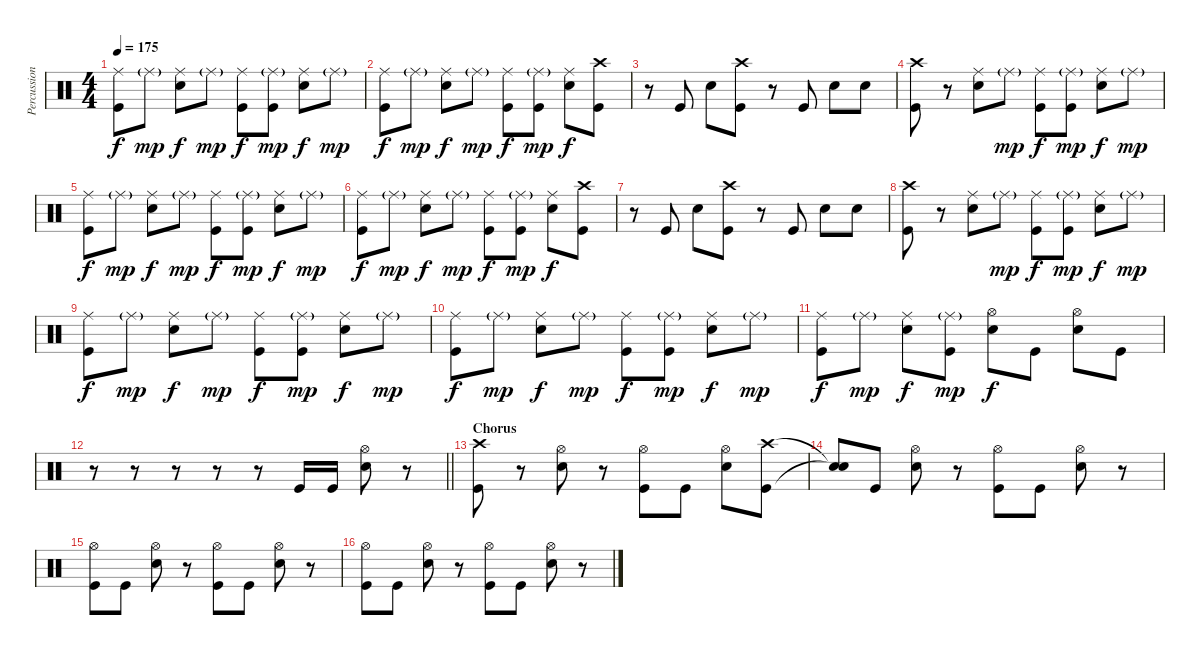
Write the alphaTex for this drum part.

\track ("Percussion" "Percussion") {instrument percussion}
\staff {score}
\articulation defaults
\ts (4 4)
\tempo 175
\clef neutral
\ks c
("Ride (middle)" "Kick (hit)").8{dy f} "Ride (middle)"{g}.8{dy mp} ("Ride (middle)" "Snare (hit) 2").8{dy f} "Ride (middle)"{g}.8{dy mp} ("Ride (middle)" "Kick (hit)").8{dy f} ("Ride (middle)"{g} "Kick (hit)").8{dy mp} ("Ride (middle)" "Snare (hit) 2").8{dy f} "Ride (middle)"{g}.8{dy mp} |
("Ride (middle)" "Kick (hit)").8{dy f} "Ride (middle)"{g}.8{dy mp} ("Ride (middle)" "Snare (hit) 2").8{dy f} "Ride (middle)"{g}.8{dy mp} ("Ride (middle)" "Kick (hit)").8{dy f} ("Ride (middle)"{g} "Kick (hit)").8{dy mp} ("Ride (middle)" "Snare (hit) 2").8{dy f} ("Crash high (hit)" "Kick (hit)").8 |
r.8 "Kick (hit)".8 "Snare (hit) 2".8 ("Crash high (hit)" "Kick (hit)").8 r.8 "Kick (hit)".8 "Snare (hit) 2".8 "Snare (hit) 2".8 |
("Crash high (hit)" "Kick (hit)").8 r.8 ("Ride (middle)" "Snare (hit) 2").8 "Ride (middle)"{g}.8{dy mp} ("Ride (middle)" "Kick (hit)").8{dy f} ("Ride (middle)"{g} "Kick (hit)").8{dy mp} ("Ride (middle)" "Snare (hit) 2").8{dy f} "Ride (middle)"{g}.8{dy mp} |
("Ride (middle)" "Kick (hit)").8{dy f} "Ride (middle)"{g}.8{dy mp} ("Ride (middle)" "Snare (hit) 2").8{dy f} "Ride (middle)"{g}.8{dy mp} ("Ride (middle)" "Kick (hit)").8{dy f} ("Ride (middle)"{g} "Kick (hit)").8{dy mp} ("Ride (middle)" "Snare (hit) 2").8{dy f} "Ride (middle)"{g}.8{dy mp} |
("Ride (middle)" "Kick (hit)").8{dy f} "Ride (middle)"{g}.8{dy mp} ("Ride (middle)" "Snare (hit) 2").8{dy f} "Ride (middle)"{g}.8{dy mp} ("Ride (middle)" "Kick (hit)").8{dy f} ("Ride (middle)"{g} "Kick (hit)").8{dy mp} ("Ride (middle)" "Snare (hit) 2").8{dy f} ("Crash high (hit)" "Kick (hit)").8 |
r.8 "Kick (hit)".8 "Snare (hit) 2".8 ("Crash high (hit)" "Kick (hit)").8 r.8 "Kick (hit)".8 "Snare (hit) 2".8 "Snare (hit) 2".8 |
("Crash high (hit)" "Kick (hit)").8 r.8 ("Ride (middle)" "Snare (hit) 2").8 "Ride (middle)"{g}.8{dy mp} ("Ride (middle)" "Kick (hit)").8{dy f} ("Ride (middle)"{g} "Kick (hit)").8{dy mp} ("Ride (middle)" "Snare (hit) 2").8{dy f} "Ride (middle)"{g}.8{dy mp} |
("Ride (middle)" "Kick (hit)").8{dy f} "Ride (middle)"{g}.8{dy mp} ("Ride (middle)" "Snare (hit) 2").8{dy f} "Ride (middle)"{g}.8{dy mp} ("Ride (middle)" "Kick (hit)").8{dy f} ("Ride (middle)"{g} "Kick (hit)").8{dy mp} ("Ride (middle)" "Snare (hit) 2").8{dy f} "Ride (middle)"{g}.8{dy mp} |
("Ride (middle)" "Kick (hit)").8{dy f} "Ride (middle)"{g}.8{dy mp} ("Ride (middle)" "Snare (hit) 2").8{dy f} "Ride (middle)"{g}.8{dy mp} ("Ride (middle)" "Kick (hit)").8{dy f} ("Ride (middle)"{g} "Kick (hit)").8{dy mp} ("Ride (middle)" "Snare (hit) 2").8{dy f} "Ride (middle)"{g}.8{dy mp} |
("Ride (middle)" "Kick (hit)").8{dy f} "Ride (middle)"{g}.8{dy mp} ("Ride (middle)" "Snare (hit) 2").8{dy f} ("Ride (middle)"{g} "Kick (hit)").8{dy mp} ("Hi-Hat (open)" "Snare (hit) 2").8{dy f} "Kick (hit)".8 ("Hi-Hat (open)" "Snare (hit) 2").8 "Kick (hit)".8 |
\barLineRight lightlight
r.8 r.8 r.8 r.8 r.8 "Kick (hit)".16 "Kick (hit)".16 ("Hi-Hat (open)" "Snare (hit) 2").8 r.8 |
\section ("" "Chorus")
("Crash high (hit)" "Kick (hit)").8 r.8 ("Hi-Hat (open)" "Snare (hit) 2").8 r.8 ("Hi-Hat (open)" "Kick (hit)").8 "Kick (hit)".8 ("Hi-Hat (open)" "Snare (hit) 2").8 ("Crash high (hit)" "Kick (hit)").8 |
("Snare (hit)"{t} "Snare (hit)"{t}).8 "Kick (hit)".8 ("Hi-Hat (open)" "Snare (hit) 2").8 r.8 ("Hi-Hat (open)" "Kick (hit)").8 "Kick (hit)".8 ("Hi-Hat (open)" "Snare (hit) 2").8 r.8 |
("Hi-Hat (open)" "Kick (hit)").8 "Kick (hit)".8 ("Hi-Hat (open)" "Snare (hit) 2").8 r.8 ("Hi-Hat (open)" "Kick (hit)").8 "Kick (hit)".8 ("Hi-Hat (open)" "Snare (hit) 2").8 r.8 |
("Hi-Hat (open)" "Kick (hit)").8 "Kick (hit)".8 ("Hi-Hat (open)" "Snare (hit) 2").8 r.8 ("Hi-Hat (open)" "Kick (hit)").8 "Kick (hit)".8 ("Hi-Hat (open)" "Snare (hit) 2").8 r.8
